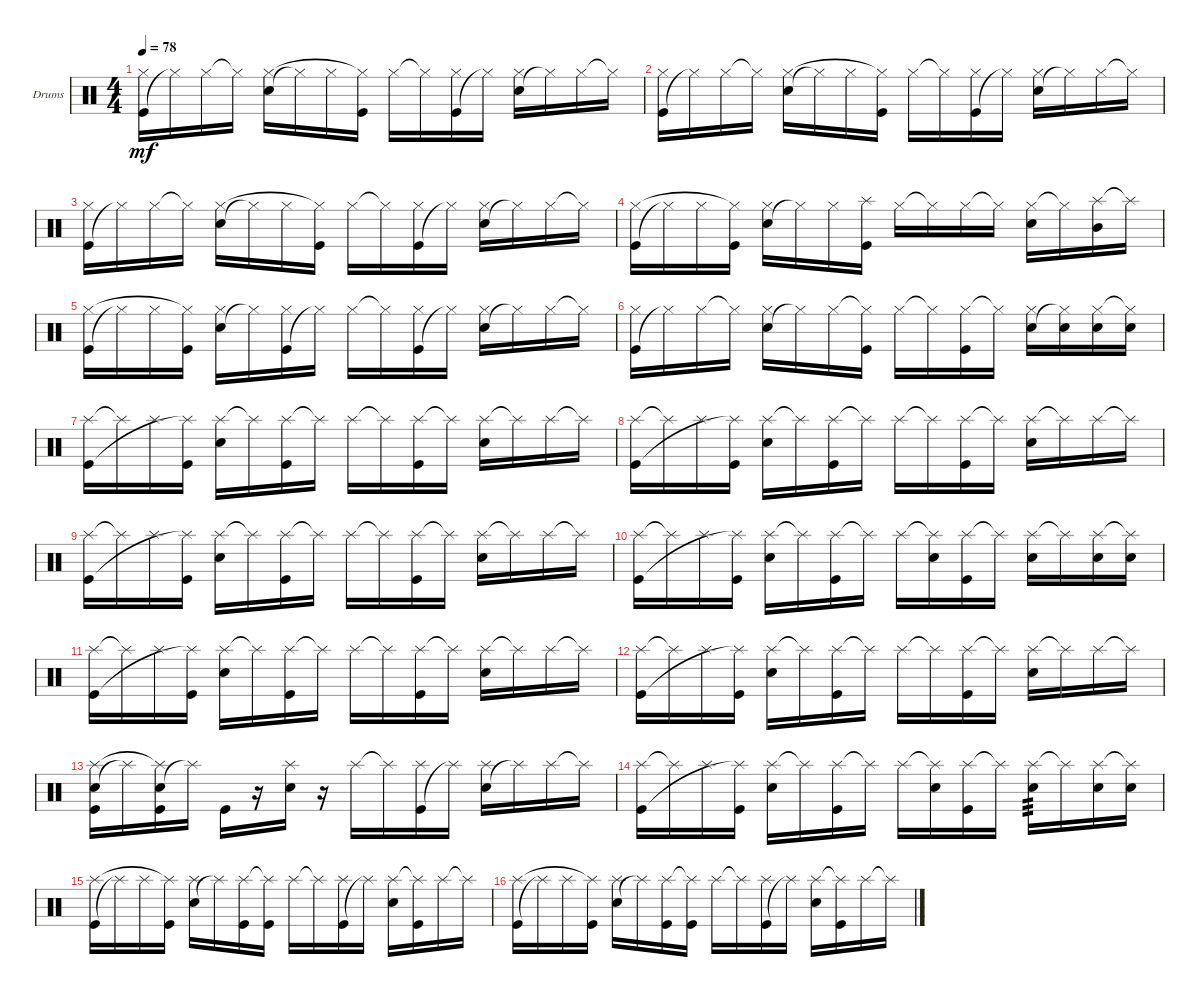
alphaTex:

\bracketExtendMode groupsimilarinstruments
\firstSystemTrackNameOrientation horizontal
\otherSystemsTrackNameOrientation horizontal
\track ("Drumkit" "Drums") {instrument percussion}
\staff {score}
\articulation defaults
\ts (4 4)
\tempo 78
\clef neutral
\ks c
("Kick (hit)" "Hi-Hat (closed)").16{dy mf} "Hi-Hat (closed)"{t}.16 "Hi-Hat (closed)".16 "Hi-Hat (closed)"{t}.16 ("Snare (hit) 2" "Hi-Hat (closed)").16 "Hi-Hat (closed)"{t}.16 "Hi-Hat (closed)".16 ("Kick (hit)" "Hi-Hat (closed)"{t}).16 "Hi-Hat (closed)".16 "Hi-Hat (closed)"{t}.16 ("Kick (hit)" "Hi-Hat (closed)").16 "Hi-Hat (closed)"{t}.16 ("Snare (hit) 2" "Hi-Hat (closed)").16 "Hi-Hat (closed)"{t}.16 "Hi-Hat (closed)".16 "Hi-Hat (closed)"{t}.16 |
("Kick (hit)" "Hi-Hat (closed)").16 "Hi-Hat (closed)"{t}.16 "Hi-Hat (closed)".16 "Hi-Hat (closed)"{t}.16 ("Snare (hit) 2" "Hi-Hat (closed)").16 "Hi-Hat (closed)"{t}.16 "Hi-Hat (closed)".16 ("Kick (hit)" "Hi-Hat (closed)"{t}).16 "Hi-Hat (closed)".16 "Hi-Hat (closed)"{t}.16 ("Kick (hit)" "Hi-Hat (closed)").16 "Hi-Hat (closed)"{t}.16 ("Snare (hit) 2" "Hi-Hat (closed)").16 "Hi-Hat (closed)"{t}.16 "Hi-Hat (closed)".16 "Hi-Hat (closed)"{t}.16 |
("Kick (hit)" "Hi-Hat (closed)").16 "Hi-Hat (closed)"{t}.16 "Hi-Hat (closed)".16 "Hi-Hat (closed)"{t}.16 ("Snare (hit) 2" "Hi-Hat (closed)").16 "Hi-Hat (closed)"{t}.16 "Hi-Hat (closed)".16 ("Kick (hit)" "Hi-Hat (closed)"{t}).16 "Hi-Hat (closed)".16 "Hi-Hat (closed)"{t}.16 ("Kick (hit)" "Hi-Hat (closed)").16 "Hi-Hat (closed)"{t}.16 ("Snare (hit) 2" "Hi-Hat (closed)").16 "Hi-Hat (closed)"{t}.16 "Hi-Hat (closed)".16 "Hi-Hat (closed)"{t}.16 |
("Kick (hit)" "Hi-Hat (closed)").16 "Hi-Hat (closed)"{t}.16 "Hi-Hat (closed)".16 ("Kick (hit)" "Hi-Hat (closed)"{t}).16 ("Snare (hit) 2" "Hi-Hat (closed)").16 "Hi-Hat (closed)"{t}.16 "Hi-Hat (closed)".16 ("Kick (hit)" "Splash (hit)").16 "Hi-Hat (closed)".16 "Hi-Hat (closed)"{t}.16 "Hi-Hat (closed)".16 "Hi-Hat (closed)"{t}.16 ("Hi-Hat (closed)" "Snare (hit) 2").16 "Hi-Hat (closed)"{t}.16 ("Splash (hit)" "Mid Tom (hit)").16 "Splash (hit)"{t}.16 |
("Kick (hit)" "Hi-Hat (closed)").16 "Hi-Hat (closed)"{t}.16 "Hi-Hat (closed)".16 ("Kick (hit)" "Hi-Hat (closed)"{t}).16 ("Snare (hit) 2" "Hi-Hat (closed)").16 "Hi-Hat (closed)"{t}.16 ("Kick (hit)" "Hi-Hat (closed)").16 "Hi-Hat (closed)"{t}.16 "Hi-Hat (closed)".16 "Hi-Hat (closed)"{t}.16 ("Kick (hit)" "Hi-Hat (closed)").16 "Hi-Hat (closed)"{t}.16 ("Snare (hit) 2" "Hi-Hat (closed)").16 "Hi-Hat (closed)"{t}.16 "Hi-Hat (closed)".16 "Hi-Hat (closed)"{t}.16 |
("Kick (hit)" "Hi-Hat (closed)").16 "Hi-Hat (closed)"{t}.16 "Hi-Hat (closed)".16 "Hi-Hat (closed)"{t}.16 ("Snare (hit) 2" "Hi-Hat (closed)").16 "Hi-Hat (closed)"{t}.16 "Hi-Hat (closed)".16 ("Hi-Hat (closed)"{t} "Kick (hit)").16 "Hi-Hat (closed)".16 "Hi-Hat (closed)"{t}.16 ("Hi-Hat (closed)" "Kick (hit)").16 "Hi-Hat (closed)"{t}.16 ("Snare (hit) 2" "Hi-Hat (closed)").16 ("Hi-Hat (closed)"{t} "Snare (hit) 2").16 ("Hi-Hat (closed)" "Snare (hit) 2").16 ("Hi-Hat (closed)"{t} "Snare (hit) 2").16 |
("Splash (hit)" "Kick (hit)").16 "Splash (hit)"{t}.16 "Splash (hit)".16 ("Kick (hit)" "Splash (hit)"{t}).16 ("Splash (hit)" "Snare (hit) 2").16 "Splash (hit)"{t}.16 ("Splash (hit)" "Kick (hit)").16 "Splash (hit)"{t}.16 "Splash (hit)".16 "Splash (hit)"{t}.16 ("Splash (hit)" "Kick (hit)").16 "Splash (hit)"{t}.16 ("Splash (hit)" "Snare (hit) 2").16 "Splash (hit)"{t}.16 "Splash (hit)".16 "Splash (hit)"{t}.16 |
("Splash (hit)" "Kick (hit)").16 "Splash (hit)"{t}.16 "Splash (hit)".16 ("Kick (hit)" "Splash (hit)"{t}).16 ("Splash (hit)" "Snare (hit) 2").16 "Splash (hit)"{t}.16 ("Splash (hit)" "Kick (hit)").16 "Splash (hit)"{t}.16 "Splash (hit)".16 "Splash (hit)"{t}.16 ("Splash (hit)" "Kick (hit)").16 "Splash (hit)"{t}.16 ("Splash (hit)" "Snare (hit) 2").16 "Splash (hit)"{t}.16 "Splash (hit)".16 "Splash (hit)"{t}.16 |
("Splash (hit)" "Kick (hit)").16 "Splash (hit)"{t}.16 "Splash (hit)".16 ("Kick (hit)" "Splash (hit)"{t}).16 ("Splash (hit)" "Snare (hit) 2").16 "Splash (hit)"{t}.16 ("Splash (hit)" "Kick (hit)").16 "Splash (hit)"{t}.16 "Splash (hit)".16 "Splash (hit)"{t}.16 ("Splash (hit)" "Kick (hit)").16 "Splash (hit)"{t}.16 ("Splash (hit)" "Snare (hit) 2").16 "Splash (hit)"{t}.16 "Splash (hit)".16 "Splash (hit)"{t}.16 |
("Splash (hit)" "Kick (hit)").16 "Splash (hit)"{t}.16 "Splash (hit)".16 ("Kick (hit)" "Splash (hit)"{t}).16 ("Splash (hit)" "Snare (hit) 2").16 "Splash (hit)"{t}.16 ("Splash (hit)" "Kick (hit)").16 "Splash (hit)"{t}.16 "Splash (hit)".16 ("Splash (hit)"{t} "Snare (hit) 2").16 ("Splash (hit)" "Kick (hit)").16 "Splash (hit)"{t}.16 ("Splash (hit)" "Snare (hit) 2").16 "Splash (hit)"{t}.16 ("Splash (hit)" "Snare (hit) 2").16 ("Splash (hit)"{t} "Snare (hit) 2").16 |
("Splash (hit)" "Kick (hit)").16 "Splash (hit)"{t}.16 "Splash (hit)".16 ("Kick (hit)" "Splash (hit)"{t}).16 ("Splash (hit)" "Snare (hit) 2").16 "Splash (hit)"{t}.16 ("Splash (hit)" "Kick (hit)").16 "Splash (hit)"{t}.16 "Splash (hit)".16 "Splash (hit)"{t}.16 ("Splash (hit)" "Kick (hit)").16 "Splash (hit)"{t}.16 ("Splash (hit)" "Snare (hit) 2").16 "Splash (hit)"{t}.16 "Splash (hit)".16 "Splash (hit)"{t}.16 |
("Splash (hit)" "Kick (hit)").16 "Splash (hit)"{t}.16 "Splash (hit)".16 ("Kick (hit)" "Splash (hit)"{t}).16 ("Splash (hit)" "Snare (hit) 2").16 "Splash (hit)"{t}.16 ("Splash (hit)" "Kick (hit)").16 "Splash (hit)"{t}.16 "Splash (hit)".16 "Splash (hit)"{t}.16 ("Splash (hit)" "Kick (hit)").16 "Splash (hit)"{t}.16 ("Splash (hit)" "Snare (hit) 2").16 "Splash (hit)"{t}.16 "Splash (hit)".16 "Splash (hit)"{t}.16 |
("Snare (hit) 2" "Kick (hit)" "Splash (hit)").16 "Splash (hit)"{t}.16 ("Snare (hit) 2" "Kick (hit)" "Splash (hit)"{t}).16 "Splash (hit)"{t}.16 "Kick (hit)".16 r.16 ("Snare (hit) 2" "Splash (hit)").16 r.16 "Splash (hit)".16 "Splash (hit)"{t}.16 ("Kick (hit)" "Splash (hit)").16 "Splash (hit)"{t}.16 ("Snare (hit) 2" "Splash (hit)").16 "Splash (hit)"{t}.16 "Splash (hit)".16 "Splash (hit)"{t}.16 |
("Splash (hit)" "Kick (hit)").16 "Splash (hit)"{t}.16 "Splash (hit)".16 ("Kick (hit)" "Splash (hit)"{t}).16 ("Splash (hit)" "Snare (hit) 2").16 "Splash (hit)"{t}.16 ("Splash (hit)" "Kick (hit)").16 "Splash (hit)"{t}.16 "Splash (hit)".16 ("Splash (hit)"{t} "Snare (hit) 2").16 ("Splash (hit)" "Kick (hit)").16 "Splash (hit)"{t}.16 ("Splash (hit)" "Snare (hit) 2").16{tp 3} "Splash (hit)"{t}.16 ("Splash (hit)" "Snare (hit) 2").16 ("Splash (hit)"{t} "Snare (hit) 2").16 |
("Kick (hit)" "Splash (hit)").16 "Splash (hit)"{t}.16 "Splash (hit)".16 ("Kick (hit)" "Splash (hit)"{t}).16 ("Snare (hit) 2" "Splash (hit)").16 "Splash (hit)"{t}.16 ("Kick (hit)" "Splash (hit)").16 ("Kick (hit)" "Splash (hit)"{t}).16 "Splash (hit)".16 "Splash (hit)"{t}.16 ("Kick (hit)" "Splash (hit)").16 "Splash (hit)"{t}.16 ("Snare (hit) 2" "Splash (hit)").16 ("Kick (hit)" "Splash (hit)"{t}).16 "Splash (hit)".16 "Splash (hit)"{t}.16 |
("Kick (hit)" "Splash (hit)").16 "Splash (hit)"{t}.16 "Splash (hit)".16 ("Kick (hit)" "Splash (hit)"{t}).16 ("Snare (hit) 2" "Splash (hit)").16 "Splash (hit)"{t}.16 ("Kick (hit)" "Splash (hit)").16 ("Kick (hit)" "Splash (hit)"{t}).16 "Splash (hit)".16 "Splash (hit)"{t}.16 ("Kick (hit)" "Splash (hit)").16 "Splash (hit)"{t}.16 ("Snare (hit) 2" "Splash (hit)").16 ("Kick (hit)" "Splash (hit)"{t}).16 "Splash (hit)".16 "Splash (hit)"{t}.16
